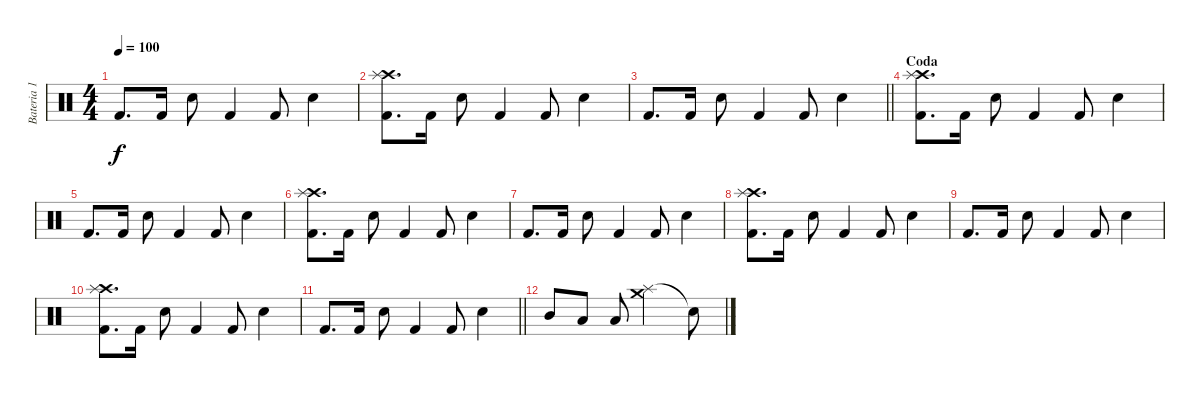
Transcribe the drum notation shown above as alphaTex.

\track ("Bateria 1" "Bateria 1") {instrument percussion}
\staff {score}
\articulation defaults
\ts (4 4)
\tempo 100
\clef neutral
\ks c "Kick (hit) 2".8{d dy f} "Kick (hit) 2".16 "Electric Snare (hit)".8 "Kick (hit) 2".4 "Kick (hit) 2".8 "Electric Snare (hit)".4
|
("Crash high (hit)" "Kick (hit) 2" "Splash (hit)").8{d} "Kick (hit) 2".16 "Electric Snare (hit)".8 "Kick (hit) 2".4 "Kick (hit) 2".8 "Electric Snare (hit)".4 |
\barLineRight lightlight "Kick (hit) 2".8{d} "Kick (hit) 2".16 "Electric Snare (hit)".8 "Kick (hit) 2".4 "Kick (hit) 2".8 "Electric Snare (hit)".4
|
\section ("" "Coda")
("Crash high (hit)" "Kick (hit) 2" "Splash (hit)").8{d} "Kick (hit) 2".16 "Electric Snare (hit)".8 "Kick (hit) 2".4 "Kick (hit) 2".8 "Electric Snare (hit)".4 |
"Kick (hit) 2".8{d} "Kick (hit) 2".16 "Electric Snare (hit)".8 "Kick (hit) 2".4 "Kick (hit) 2".8 "Electric Snare (hit)".4 |
("Crash high (hit)" "Kick (hit) 2" "Splash (hit)").8{d} "Kick (hit) 2".16 "Electric Snare (hit)".8 "Kick (hit) 2".4 "Kick (hit) 2".8 "Electric Snare (hit)".4 |
"Kick (hit) 2".8{d} "Kick (hit) 2".16 "Electric Snare (hit)".8 "Kick (hit) 2".4 "Kick (hit) 2".8 "Electric Snare (hit)".4 |
("Crash high (hit)" "Kick (hit) 2" "Splash (hit)").8{d} "Kick (hit) 2".16 "Electric Snare (hit)".8 "Kick (hit) 2".4 "Kick (hit) 2".8 "Electric Snare (hit)".4 |
"Kick (hit) 2".8{d} "Kick (hit) 2".16 "Electric Snare (hit)".8 "Kick (hit) 2".4 "Kick (hit) 2".8 "Electric Snare (hit)".4 |
("Crash high (hit)" "Kick (hit) 2" "Splash (hit)").8{d} "Kick (hit) 2".16 "Electric Snare (hit)".8 "Kick (hit) 2".4 "Kick (hit) 2".8 "Electric Snare (hit)".4 |
\barLineRight lightlight "Kick (hit) 2".8{d} "Kick (hit) 2".16 "Electric Snare (hit)".8 "Kick (hit) 2".4 "Kick (hit) 2".8 "Electric Snare (hit)".4
|
"Mid Tom (hit)".8 "Low Tom (hit)".8 "Low Floor Tom (hit)".8 ("Splash (hit)" "Crash medium (hit)").2 "Snare (hit)"{t}.8
